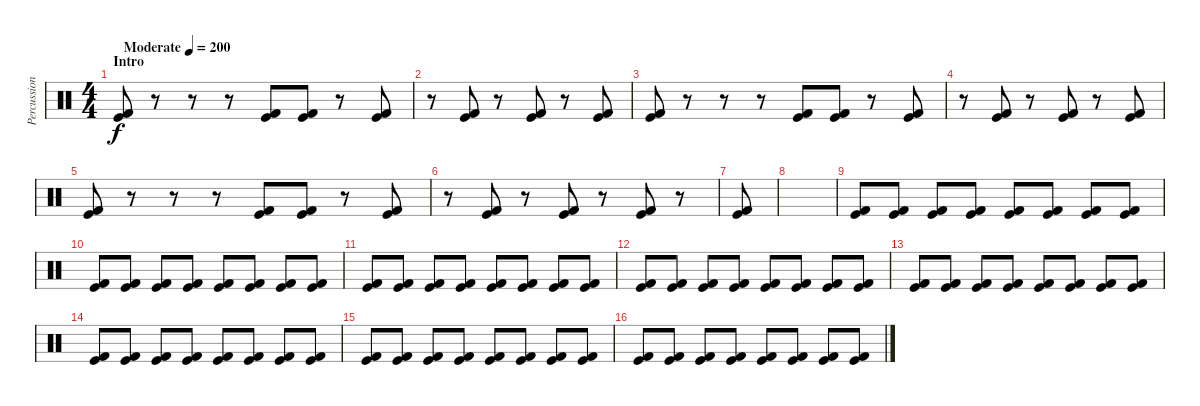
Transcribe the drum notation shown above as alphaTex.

\track ("Percussion" "Percussion") {instrument percussion}
\staff {score}
\articulation defaults
\ts (4 4)
\section ("" "Intro")
\tempo (200 "Moderate")
\clef neutral
\ks c
("Kick (hit) 2" "Kick (hit)").8{dy f} r.8 r.8 r.8 ("Kick (hit) 2" "Kick (hit)").8 ("Kick (hit) 2" "Kick (hit)").8 r.8 ("Kick (hit) 2" "Kick (hit)").8 |
r.8 ("Kick (hit) 2" "Kick (hit)").8 r.8 ("Kick (hit) 2" "Kick (hit)").8 r.8 ("Kick (hit) 2" "Kick (hit)").8 |
("Kick (hit) 2" "Kick (hit)").8 r.8 r.8 r.8 ("Kick (hit) 2" "Kick (hit)").8 ("Kick (hit) 2" "Kick (hit)").8 r.8 ("Kick (hit) 2" "Kick (hit)").8 |
r.8 ("Kick (hit) 2" "Kick (hit)").8 r.8 ("Kick (hit) 2" "Kick (hit)").8 r.8 ("Kick (hit) 2" "Kick (hit)").8 |
("Kick (hit) 2" "Kick (hit)").8 r.8 r.8 r.8 ("Kick (hit) 2" "Kick (hit)").8 ("Kick (hit) 2" "Kick (hit)").8 r.8 ("Kick (hit) 2" "Kick (hit)").8 |
r.8 ("Kick (hit) 2" "Kick (hit)").8 r.8 ("Kick (hit) 2" "Kick (hit)").8 r.8 ("Kick (hit) 2" "Kick (hit)").8 r.8 |
("Kick (hit) 2" "Kick (hit)").8 |
|
("Kick (hit) 2" "Kick (hit)").8 ("Kick (hit) 2" "Kick (hit)").8 ("Kick (hit) 2" "Kick (hit)").8 ("Kick (hit) 2" "Kick (hit)").8 ("Kick (hit) 2" "Kick (hit)").8 ("Kick (hit) 2" "Kick (hit)").8 ("Kick (hit) 2" "Kick (hit)").8 ("Kick (hit) 2" "Kick (hit)").8 |
("Kick (hit) 2" "Kick (hit)").8 ("Kick (hit) 2" "Kick (hit)").8 ("Kick (hit) 2" "Kick (hit)").8 ("Kick (hit) 2" "Kick (hit)").8 ("Kick (hit) 2" "Kick (hit)").8 ("Kick (hit) 2" "Kick (hit)").8 ("Kick (hit) 2" "Kick (hit)").8 ("Kick (hit) 2" "Kick (hit)").8 |
("Kick (hit) 2" "Kick (hit)").8 ("Kick (hit) 2" "Kick (hit)").8 ("Kick (hit) 2" "Kick (hit)").8 ("Kick (hit) 2" "Kick (hit)").8 ("Kick (hit) 2" "Kick (hit)").8 ("Kick (hit) 2" "Kick (hit)").8 ("Kick (hit) 2" "Kick (hit)").8 ("Kick (hit) 2" "Kick (hit)").8 |
("Kick (hit) 2" "Kick (hit)").8 ("Kick (hit) 2" "Kick (hit)").8 ("Kick (hit) 2" "Kick (hit)").8 ("Kick (hit) 2" "Kick (hit)").8 ("Kick (hit) 2" "Kick (hit)").8 ("Kick (hit) 2" "Kick (hit)").8 ("Kick (hit) 2" "Kick (hit)").8 ("Kick (hit) 2" "Kick (hit)").8 |
("Kick (hit) 2" "Kick (hit)").8 ("Kick (hit) 2" "Kick (hit)").8 ("Kick (hit) 2" "Kick (hit)").8 ("Kick (hit) 2" "Kick (hit)").8 ("Kick (hit) 2" "Kick (hit)").8 ("Kick (hit) 2" "Kick (hit)").8 ("Kick (hit) 2" "Kick (hit)").8 ("Kick (hit) 2" "Kick (hit)").8 |
("Kick (hit) 2" "Kick (hit)").8 ("Kick (hit) 2" "Kick (hit)").8 ("Kick (hit) 2" "Kick (hit)").8 ("Kick (hit) 2" "Kick (hit)").8 ("Kick (hit) 2" "Kick (hit)").8 ("Kick (hit) 2" "Kick (hit)").8 ("Kick (hit) 2" "Kick (hit)").8 ("Kick (hit) 2" "Kick (hit)").8 |
("Kick (hit) 2" "Kick (hit)").8 ("Kick (hit) 2" "Kick (hit)").8 ("Kick (hit) 2" "Kick (hit)").8 ("Kick (hit) 2" "Kick (hit)").8 ("Kick (hit) 2" "Kick (hit)").8 ("Kick (hit) 2" "Kick (hit)").8 ("Kick (hit) 2" "Kick (hit)").8 ("Kick (hit) 2" "Kick (hit)").8 |
("Kick (hit) 2" "Kick (hit)").8 ("Kick (hit) 2" "Kick (hit)").8 ("Kick (hit) 2" "Kick (hit)").8 ("Kick (hit) 2" "Kick (hit)").8 ("Kick (hit) 2" "Kick (hit)").8 ("Kick (hit) 2" "Kick (hit)").8 ("Kick (hit) 2" "Kick (hit)").8 ("Kick (hit) 2" "Kick (hit)").8
